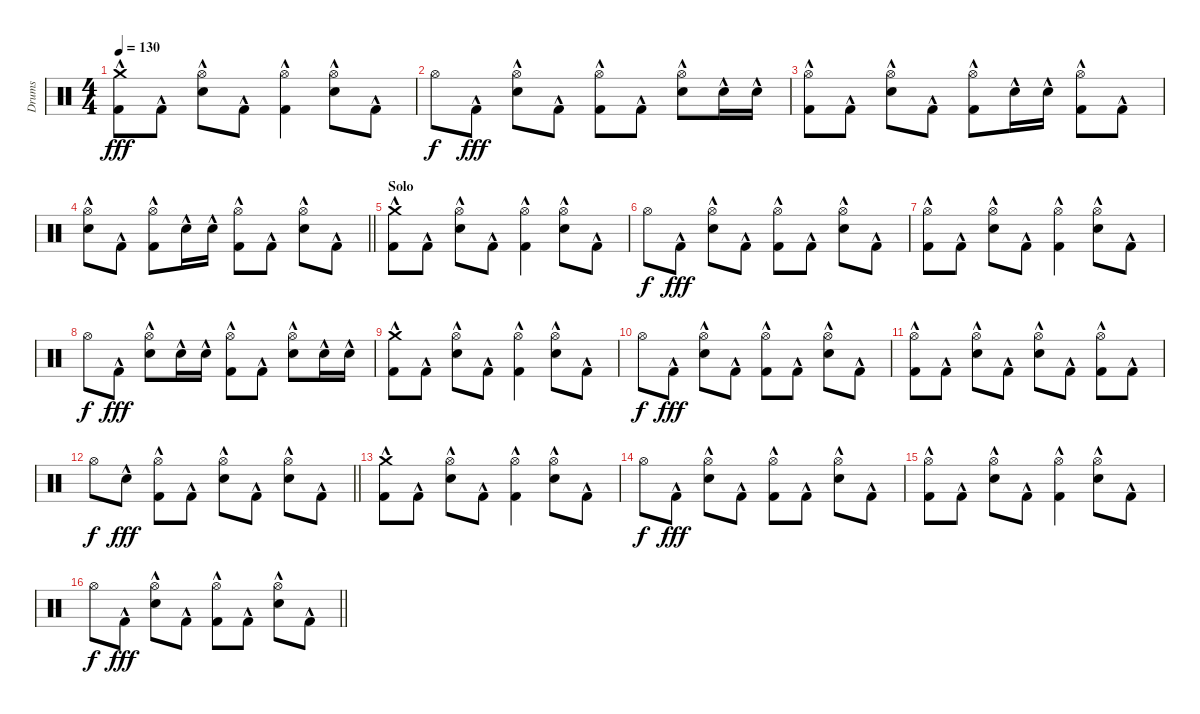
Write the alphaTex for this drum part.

\track ("Drums" "Drums") {instrument percussion}
\staff {score}
\articulation defaults
\ts (4 4)
\tempo 130
\clef neutral
\ks c
("Crash medium (hit)" "Kick (hit) 2"{hac}).8{dy fff} "Kick (hit) 2"{hac}.8 ("Hi-Hat (open)" "Electric Snare (hit)"{hac}).8 "Kick (hit) 2"{hac}.8 ("Hi-Hat (open)" "Kick (hit) 2"{hac}).4 ("Hi-Hat (open)" "Electric Snare (hit)"{hac}).8 "Kick (hit) 2"{hac}.8 |
"Hi-Hat (open)".8{dy f} "Kick (hit) 2"{hac}.8{dy fff} ("Hi-Hat (open)" "Electric Snare (hit)"{hac}).8 "Kick (hit) 2"{hac}.8 ("Hi-Hat (open)" "Kick (hit) 2"{hac}).8 "Kick (hit) 2"{hac}.8 ("Hi-Hat (open)" "Electric Snare (hit)"{hac}).8 "Electric Snare (hit)"{hac}.16 "Electric Snare (hit)"{hac}.16 |
("Hi-Hat (open)" "Kick (hit) 2"{hac}).8 "Kick (hit) 2"{hac}.8 ("Hi-Hat (open)" "Electric Snare (hit)"{hac}).8 "Kick (hit) 2"{hac}.8 ("Hi-Hat (open)" "Kick (hit) 2"{hac}).8 "Electric Snare (hit)"{hac}.16 "Electric Snare (hit)"{hac}.16 ("Hi-Hat (open)" "Kick (hit) 2"{hac}).8 "Kick (hit) 2"{hac}.8 |
\barLineRight lightlight
("Hi-Hat (open)" "Electric Snare (hit)"{hac}).8 "Kick (hit) 2"{hac}.8 ("Hi-Hat (open)" "Kick (hit) 2"{hac}).8 "Electric Snare (hit)"{hac}.16 "Electric Snare (hit)"{hac}.16 ("Hi-Hat (open)" "Kick (hit) 2"{hac}).8 "Kick (hit) 2"{hac}.8 ("Hi-Hat (open)" "Electric Snare (hit)"{hac}).8 "Kick (hit) 2"{hac}.8 |
\section ("" "Solo")
("Crash medium (hit)" "Kick (hit) 2"{hac}).8 "Kick (hit) 2"{hac}.8 ("Hi-Hat (open)" "Electric Snare (hit)"{hac}).8 "Kick (hit) 2"{hac}.8 ("Hi-Hat (open)" "Kick (hit) 2"{hac}).4 ("Hi-Hat (open)" "Electric Snare (hit)"{hac}).8 "Kick (hit) 2"{hac}.8 |
"Hi-Hat (open)".8{dy f} "Kick (hit) 2"{hac}.8{dy fff} ("Hi-Hat (open)" "Electric Snare (hit)"{hac}).8 "Kick (hit) 2"{hac}.8 ("Hi-Hat (open)" "Kick (hit) 2"{hac}).8 "Kick (hit) 2"{hac}.8 ("Hi-Hat (open)" "Electric Snare (hit)"{hac}).8 "Kick (hit) 2"{hac}.8 |
("Hi-Hat (open)" "Kick (hit) 2"{hac}).8 "Kick (hit) 2"{hac}.8 ("Hi-Hat (open)" "Electric Snare (hit)"{hac}).8 "Kick (hit) 2"{hac}.8 ("Hi-Hat (open)" "Kick (hit) 2"{hac}).4 ("Hi-Hat (open)" "Electric Snare (hit)"{hac}).8 "Kick (hit) 2"{hac}.8 |
"Hi-Hat (open)".8{dy f} "Kick (hit) 2"{hac}.8{dy fff} ("Hi-Hat (open)" "Electric Snare (hit)"{hac}).8 "Electric Snare (hit)"{hac}.16 "Electric Snare (hit)"{hac}.16 ("Hi-Hat (open)" "Kick (hit) 2"{hac}).8 "Kick (hit) 2"{hac}.8 ("Hi-Hat (open)" "Electric Snare (hit)"{hac}).8 "Electric Snare (hit)"{hac}.16 "Electric Snare (hit)"{hac}.16 |
("Crash medium (hit)" "Kick (hit) 2"{hac}).8 "Kick (hit) 2"{hac}.8 ("Hi-Hat (open)" "Electric Snare (hit)"{hac}).8 "Kick (hit) 2"{hac}.8 ("Hi-Hat (open)" "Kick (hit) 2"{hac}).4 ("Hi-Hat (open)" "Electric Snare (hit)"{hac}).8 "Kick (hit) 2"{hac}.8 |
"Hi-Hat (open)".8{dy f} "Kick (hit) 2"{hac}.8{dy fff} ("Hi-Hat (open)" "Electric Snare (hit)"{hac}).8 "Kick (hit) 2"{hac}.8 ("Hi-Hat (open)" "Kick (hit) 2"{hac}).8 "Kick (hit) 2"{hac}.8 ("Hi-Hat (open)" "Electric Snare (hit)"{hac}).8 "Kick (hit) 2"{hac}.8 |
("Hi-Hat (open)" "Kick (hit) 2"{hac}).8 "Kick (hit) 2"{hac}.8 ("Hi-Hat (open)" "Electric Snare (hit)"{hac}).8 "Kick (hit) 2"{hac}.8 ("Hi-Hat (open)" "Electric Snare (hit)"{hac}).8 "Kick (hit) 2"{hac}.8 ("Hi-Hat (open)" "Kick (hit) 2"{hac}).8 "Kick (hit) 2"{hac}.8 |
\barLineRight lightlight "Hi-Hat (open)".8{dy f} "Electric Snare (hit)"{hac}.8{dy fff}
("Hi-Hat (open)" "Kick (hit) 2"{hac}).8 "Kick (hit) 2"{hac}.8 ("Hi-Hat (open)" "Electric Snare (hit)"{hac}).8 "Kick (hit) 2"{hac}.8 ("Hi-Hat (open)" "Electric Snare (hit)"{hac}).8 "Kick (hit) 2"{hac}.8 |
("Crash medium (hit)" "Kick (hit) 2"{hac}).8 "Kick (hit) 2"{hac}.8 ("Hi-Hat (open)" "Electric Snare (hit)"{hac}).8 "Kick (hit) 2"{hac}.8 ("Hi-Hat (open)" "Kick (hit) 2"{hac}).4 ("Hi-Hat (open)" "Electric Snare (hit)"{hac}).8 "Kick (hit) 2"{hac}.8 |
"Hi-Hat (open)".8{dy f} "Kick (hit) 2"{hac}.8{dy fff} ("Hi-Hat (open)" "Electric Snare (hit)"{hac}).8 "Kick (hit) 2"{hac}.8 ("Hi-Hat (open)" "Kick (hit) 2"{hac}).8 "Kick (hit) 2"{hac}.8 ("Hi-Hat (open)" "Electric Snare (hit)"{hac}).8 "Kick (hit) 2"{hac}.8 |
("Hi-Hat (open)" "Kick (hit) 2"{hac}).8 "Kick (hit) 2"{hac}.8 ("Hi-Hat (open)" "Electric Snare (hit)"{hac}).8 "Kick (hit) 2"{hac}.8 ("Hi-Hat (open)" "Kick (hit) 2"{hac}).4 ("Hi-Hat (open)" "Electric Snare (hit)"{hac}).8 "Kick (hit) 2"{hac}.8 |
\barLineRight lightlight "Hi-Hat (open)".8{dy f} "Kick (hit) 2"{hac}.8{dy fff}
("Hi-Hat (open)" "Electric Snare (hit)"{hac}).8 "Kick (hit) 2"{hac}.8 ("Hi-Hat (open)" "Kick (hit) 2"{hac}).8 "Kick (hit) 2"{hac}.8 ("Hi-Hat (open)" "Electric Snare (hit)"{hac}).8 "Kick (hit) 2"{hac}.8
